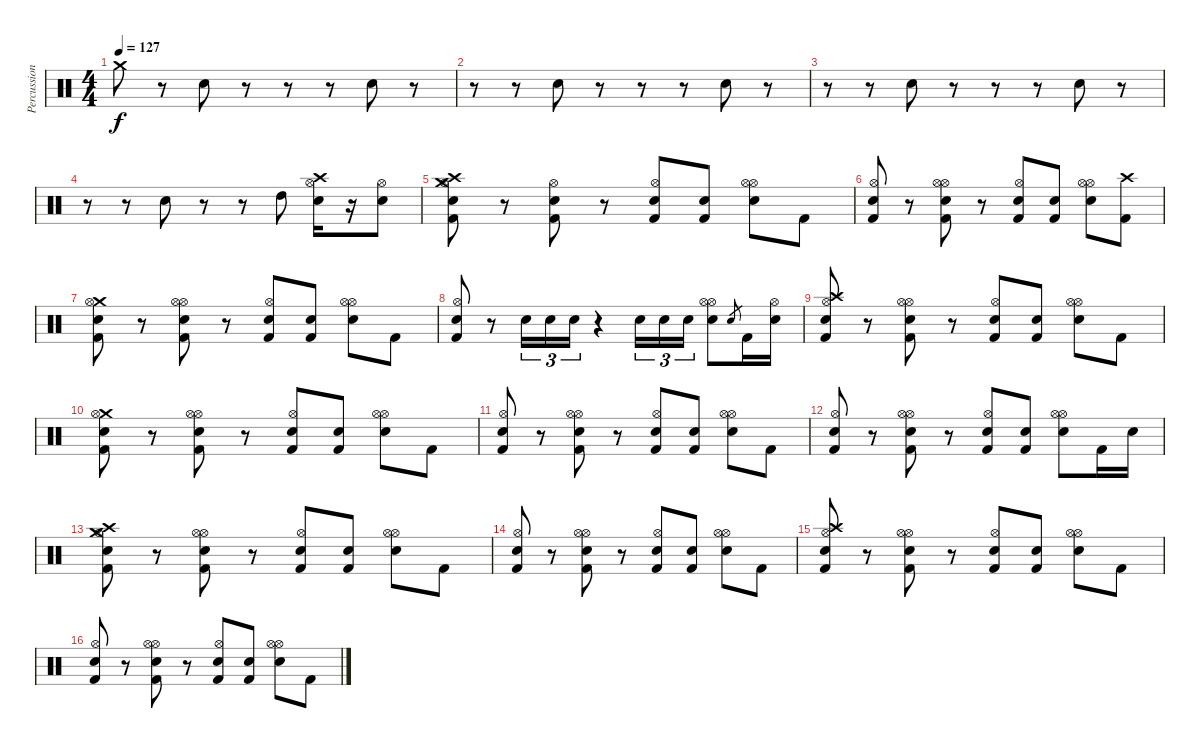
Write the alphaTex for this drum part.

\track ("Percussion" "Percussion") {instrument percussion}
\staff {score}
\articulation defaults
\ts (4 4)
\tempo 127
\clef neutral
\ks c "Crash medium (hit)".8{dy f}
r.8 "Snare (hit) 2".8 r.8 r.8 r.8 "Snare (hit) 2".8 r.8 |
r.8 r.8 "Snare (hit) 2".8 r.8 r.8 r.8 "Snare (hit) 2".8 r.8 |
r.8 r.8 "Snare (hit) 2".8 r.8 r.8 r.8 "Snare (hit) 2".8 r.8 |
r.8 r.8 "Snare (hit) 2".8 r.8 r.8 "High Tom (hit)".8 ("Crash high (hit)" "Snare (hit) 2" "Hi-Hat (open)").16 r.16 ("Electric Snare (hit)" "Hi-Hat (open)").8 |
("Crash high (hit)" "Crash medium (hit)" "Kick (hit) 2" "Snare (hit) 2" "Hi-Hat (open)").8 r.8 ("Hi-Hat (open)" "Kick (hit) 2" "Electric Snare (hit)").8 r.8 ("Kick (hit) 2" "Snare (hit) 2" "Hi-Hat (open)").8 ("Kick (hit) 2" "Snare (hit) 2").8 ("Hi-Hat (open)" "Electric Snare (hit)" "Hi-Hat (open)").8 "Kick (hit) 2".8 |
("Kick (hit) 2" "Snare (hit) 2" "Hi-Hat (open)").8 r.8 ("Hi-Hat (open)" "Kick (hit) 2" "Electric Snare (hit)" "Hi-Hat (open)").8 r.8 ("Kick (hit) 2" "Snare (hit) 2" "Hi-Hat (open)").8 ("Kick (hit) 2" "Snare (hit) 2").8 ("Hi-Hat (open)" "Electric Snare (hit)" "Hi-Hat (open)").8 ("Crash high (hit)" "Kick (hit) 2").8 |
("Crash medium (hit)" "Kick (hit) 2" "Snare (hit) 2" "Hi-Hat (open)").8 r.8 ("Hi-Hat (open)" "Kick (hit) 2" "Electric Snare (hit)" "Hi-Hat (open)").8 r.8 ("Kick (hit) 2" "Snare (hit) 2" "Hi-Hat (open)").8 ("Kick (hit) 2" "Snare (hit) 2").8 ("Hi-Hat (open)" "Electric Snare (hit)" "Hi-Hat (open)").8 "Kick (hit) 2".8 |
("Kick (hit) 2" "Snare (hit) 2" "Hi-Hat (open)").8 r.8 "Snare (hit) 2".16{tu (3 2)} "Snare (hit) 2".16{tu (3 2)} "Electric Snare (hit)".16{tu (3 2)} r.4 "Snare (hit) 2".16{tu (3 2)} "Snare (hit) 2".16{tu (3 2)} "Electric Snare (hit)".16{tu (3 2)} ("Hi-Hat (open)" "Electric Snare (hit)" "Hi-Hat (open)").8 "Electric Snare (hit)".8{gr} "Kick (hit) 2".16 ("Hi-Hat (open)" "Snare (hit) 2").16 |
("Crash high (hit)" "Kick (hit) 2" "Snare (hit) 2" "Hi-Hat (open)").8 r.8 ("Hi-Hat (open)" "Kick (hit) 2" "Electric Snare (hit)" "Hi-Hat (open)").8 r.8 ("Kick (hit) 2" "Snare (hit) 2" "Hi-Hat (open)").8 ("Kick (hit) 2" "Snare (hit) 2").8 ("Hi-Hat (open)" "Electric Snare (hit)" "Hi-Hat (open)").8 "Kick (hit) 2".8 |
("Crash medium (hit)" "Kick (hit) 2" "Snare (hit) 2" "Hi-Hat (open)").8 r.8 ("Hi-Hat (open)" "Kick (hit) 2" "Electric Snare (hit)" "Hi-Hat (open)").8 r.8 ("Kick (hit) 2" "Snare (hit) 2" "Hi-Hat (open)").8 ("Kick (hit) 2" "Snare (hit) 2").8 ("Hi-Hat (open)" "Electric Snare (hit)" "Hi-Hat (open)").8 "Kick (hit) 2".8 |
("Kick (hit) 2" "Snare (hit) 2" "Hi-Hat (open)").8 r.8 ("Hi-Hat (open)" "Kick (hit) 2" "Electric Snare (hit)" "Hi-Hat (open)").8 r.8 ("Kick (hit) 2" "Snare (hit) 2" "Hi-Hat (open)").8 ("Kick (hit) 2" "Snare (hit) 2").8 ("Hi-Hat (open)" "Electric Snare (hit)" "Hi-Hat (open)").8 "Kick (hit) 2".8 |
("Kick (hit) 2" "Snare (hit) 2" "Hi-Hat (open)").8 r.8 ("Hi-Hat (open)" "Kick (hit) 2" "Electric Snare (hit)" "Hi-Hat (open)").8 r.8 ("Kick (hit) 2" "Snare (hit) 2" "Hi-Hat (open)").8 ("Kick (hit) 2" "Snare (hit) 2").8 ("Hi-Hat (open)" "Electric Snare (hit)" "Hi-Hat (open)").8 "Kick (hit) 2".16 "Electric Snare (hit)".16 |
("Crash high (hit)" "Crash medium (hit)" "Kick (hit) 2" "Snare (hit) 2" "Hi-Hat (open)").8 r.8 ("Hi-Hat (open)" "Kick (hit) 2" "Electric Snare (hit)" "Hi-Hat (open)").8 r.8 ("Kick (hit) 2" "Snare (hit) 2" "Hi-Hat (open)").8 ("Kick (hit) 2" "Snare (hit) 2").8 ("Hi-Hat (open)" "Electric Snare (hit)" "Hi-Hat (open)").8 "Kick (hit) 2".8 |
("Kick (hit) 2" "Snare (hit) 2" "Hi-Hat (open)").8 r.8 ("Hi-Hat (open)" "Kick (hit) 2" "Electric Snare (hit)" "Hi-Hat (open)").8 r.8 ("Kick (hit) 2" "Snare (hit) 2" "Hi-Hat (open)").8 ("Kick (hit) 2" "Snare (hit) 2").8 ("Hi-Hat (open)" "Electric Snare (hit)" "Hi-Hat (open)").8 "Kick (hit) 2".8 |
("Crash high (hit)" "Kick (hit) 2" "Snare (hit) 2" "Hi-Hat (open)").8 r.8 ("Hi-Hat (open)" "Kick (hit) 2" "Electric Snare (hit)" "Hi-Hat (open)").8 r.8 ("Kick (hit) 2" "Snare (hit) 2" "Hi-Hat (open)").8 ("Kick (hit) 2" "Snare (hit) 2").8 ("Hi-Hat (open)" "Electric Snare (hit)" "Hi-Hat (open)").8 "Kick (hit) 2".8 |
("Kick (hit) 2" "Snare (hit) 2" "Hi-Hat (open)").8 r.8 ("Hi-Hat (open)" "Kick (hit) 2" "Electric Snare (hit)" "Hi-Hat (open)").8 r.8 ("Kick (hit) 2" "Snare (hit) 2" "Hi-Hat (open)").8 ("Kick (hit) 2" "Snare (hit) 2").8 ("Hi-Hat (open)" "Electric Snare (hit)" "Hi-Hat (open)").8 "Kick (hit) 2".8
